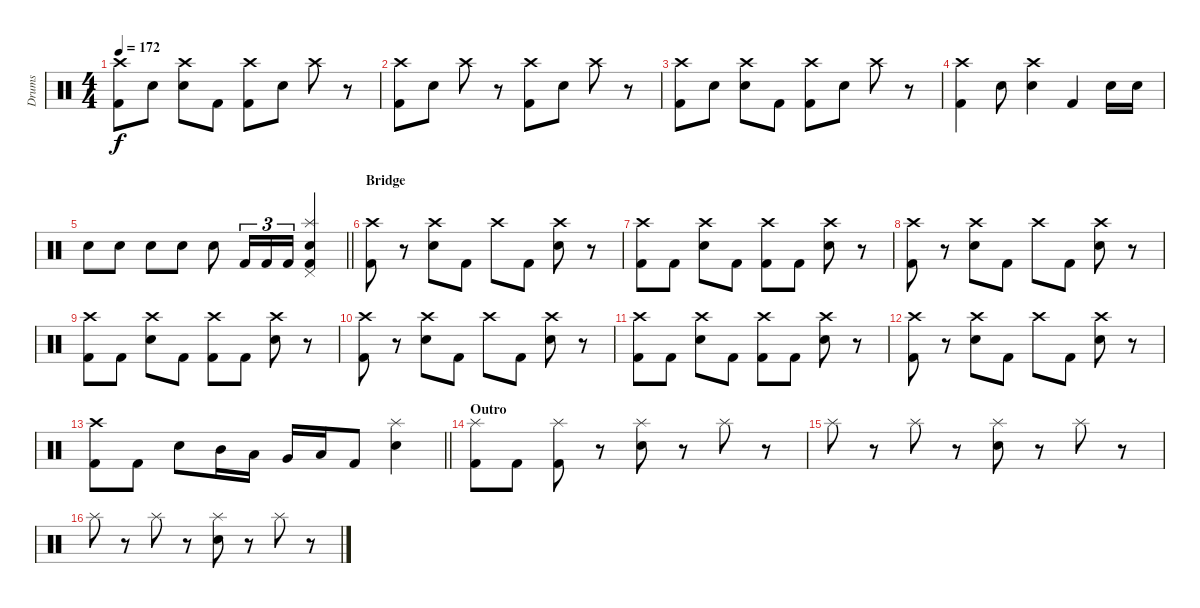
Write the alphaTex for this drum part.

\track ("Drums" "Drums") {instrument percussion}
\staff {score}
\articulation defaults
\ts (4 4)
\tempo 172
\clef neutral
\ks c
("Crash high (hit)" "Kick (hit) 2").8{dy f} "Electric Snare (hit)".8 ("Crash high (hit)" "Electric Snare (hit)").8 "Kick (hit) 2".8 ("Crash high (hit)" "Kick (hit) 2").8 "Electric Snare (hit)".8 "Crash high (hit)".8 r.8 |
("Crash high (hit)" "Kick (hit) 2").8 "Electric Snare (hit)".8 "Crash high (hit)".8 r.8 ("Crash high (hit)" "Kick (hit) 2").8 "Electric Snare (hit)".8 "Crash high (hit)".8 r.8 |
("Crash high (hit)" "Kick (hit) 2").8 "Electric Snare (hit)".8 ("Crash high (hit)" "Electric Snare (hit)").8 "Kick (hit) 2".8 ("Crash high (hit)" "Kick (hit) 2").8 "Electric Snare (hit)".8 "Crash high (hit)".8 r.8 |
("Crash high (hit)" "Kick (hit) 2").4 "Electric Snare (hit)".8 ("Crash high (hit)" "Electric Snare (hit)").4 "Kick (hit) 2".4 "Electric Snare (hit)".16 "Electric Snare (hit)".16 |
\barLineRight lightlight "Electric Snare (hit)".8 "Electric Snare (hit)".8 "Electric Snare (hit)".8 "Electric Snare (hit)".8 "Electric Snare (hit)".8 "Kick (hit) 2".16{tu (3 2)} "Kick (hit) 2".16{tu (3 2)} "Kick (hit) 2".16{tu (3 2)}
("Splash (hit)" "Pedal Hi-Hat (hit)" "Electric Snare (hit)" "Kick (hit) 2").4 |
\section ("" "Bridge")
("Crash high (hit)" "Kick (hit) 2").8 r.8 ("Crash high (hit)" "Electric Snare (hit)").8 "Kick (hit) 2".8 "Crash high (hit)".8 "Kick (hit) 2".8 ("Crash high (hit)" "Electric Snare (hit)").8 r.8 |
("Crash high (hit)" "Kick (hit) 2").8 "Kick (hit) 2".8 ("Crash high (hit)" "Electric Snare (hit)").8 "Kick (hit) 2".8 ("Crash high (hit)" "Kick (hit) 2").8 "Kick (hit) 2".8 ("Crash high (hit)" "Electric Snare (hit)").8 r.8 |
("Crash high (hit)" "Kick (hit) 2").8 r.8 ("Crash high (hit)" "Electric Snare (hit)").8 "Kick (hit) 2".8 "Crash high (hit)".8 "Kick (hit) 2".8 ("Crash high (hit)" "Electric Snare (hit)").8 r.8 |
("Crash high (hit)" "Kick (hit) 2").8 "Kick (hit) 2".8 ("Crash high (hit)" "Electric Snare (hit)").8 "Kick (hit) 2".8 ("Crash high (hit)" "Kick (hit) 2").8 "Kick (hit) 2".8 ("Crash high (hit)" "Electric Snare (hit)").8 r.8 |
("Crash high (hit)" "Kick (hit) 2").8 r.8 ("Crash high (hit)" "Electric Snare (hit)").8 "Kick (hit) 2".8 "Crash high (hit)".8 "Kick (hit) 2".8 ("Crash high (hit)" "Electric Snare (hit)").8 r.8 |
("Crash high (hit)" "Kick (hit) 2").8 "Kick (hit) 2".8 ("Crash high (hit)" "Electric Snare (hit)").8 "Kick (hit) 2".8 ("Crash high (hit)" "Kick (hit) 2").8 "Kick (hit) 2".8 ("Crash high (hit)" "Electric Snare (hit)").8 r.8 |
("Crash high (hit)" "Kick (hit) 2").8 r.8 ("Crash high (hit)" "Electric Snare (hit)").8 "Kick (hit) 2".8 "Crash high (hit)".8 "Kick (hit) 2".8 ("Crash high (hit)" "Electric Snare (hit)").8 r.8 |
\barLineRight lightlight
("Crash high (hit)" "Kick (hit) 2").8 "Kick (hit) 2".8 "Electric Snare (hit)".8 "Mid Tom (hit)".16 "Low Tom (hit)".16 "Very Low Tom (hit)".16 "Low Floor Tom (hit)".16 "Kick (hit) 2".8 ("Splash (hit)" "Electric Snare (hit)").4 |
\section ("" "Outro")
("Splash (hit)" "Kick (hit) 2").8 "Kick (hit) 2".8 ("Splash (hit)" "Kick (hit) 2").8 r.8 ("Splash (hit)" "Electric Snare (hit)").8 r.8 "Splash (hit)".8 r.8 |
"Splash (hit)".8 r.8 "Splash (hit)".8 r.8 ("Splash (hit)" "Electric Snare (hit)").8 r.8 "Splash (hit)".8 r.8 |
"Splash (hit)".8 r.8 "Splash (hit)".8 r.8 ("Splash (hit)" "Electric Snare (hit)").8 r.8 "Splash (hit)".8 r.8
